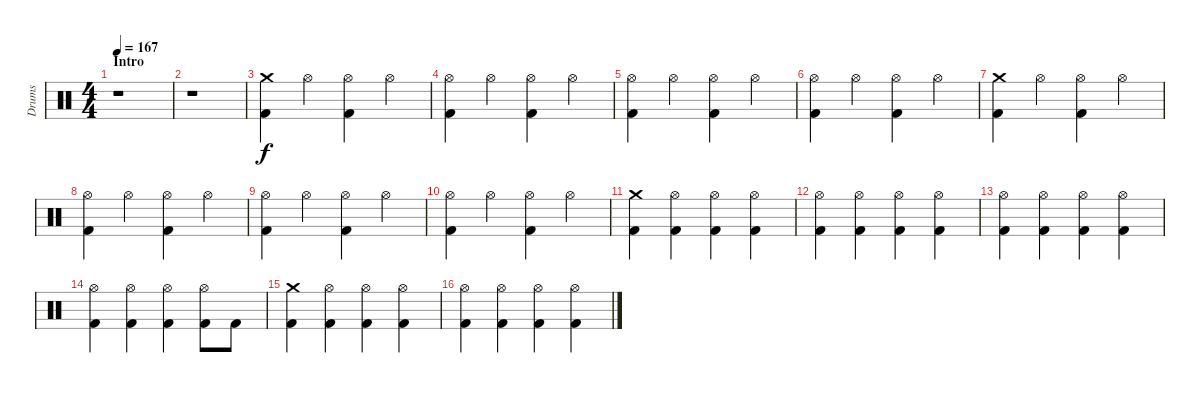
\track ("Drums" "Drums") {instrument percussion}
\staff {score}
\articulation defaults
\ts (4 4)
\section ("" "Intro")
\tempo 167
\clef neutral
\ks c
r.1{dy f} |
r.1 |
("Kick (hit) 2" "Crash medium (hit)").4 "Hi-Hat (open)".4 ("Kick (hit) 2" "Hi-Hat (open)").4 "Hi-Hat (open)".4 |
("Kick (hit) 2" "Hi-Hat (open)").4 "Hi-Hat (open)".4 ("Kick (hit) 2" "Hi-Hat (open)").4 "Hi-Hat (open)".4 |
("Kick (hit) 2" "Hi-Hat (open)").4 "Hi-Hat (open)".4 ("Kick (hit) 2" "Hi-Hat (open)").4 "Hi-Hat (open)".4 |
("Kick (hit) 2" "Hi-Hat (open)").4 "Hi-Hat (open)".4 ("Kick (hit) 2" "Hi-Hat (open)").4 "Hi-Hat (open)".4 |
("Kick (hit) 2" "Crash medium (hit)").4 "Hi-Hat (open)".4 ("Kick (hit) 2" "Hi-Hat (open)").4 "Hi-Hat (open)".4 |
("Kick (hit) 2" "Hi-Hat (open)").4 "Hi-Hat (open)".4 ("Kick (hit) 2" "Hi-Hat (open)").4 "Hi-Hat (open)".4 |
("Kick (hit) 2" "Hi-Hat (open)").4 "Hi-Hat (open)".4 ("Kick (hit) 2" "Hi-Hat (open)").4 "Hi-Hat (open)".4 |
("Kick (hit) 2" "Hi-Hat (open)").4 "Hi-Hat (open)".4 ("Kick (hit) 2" "Hi-Hat (open)").4 "Hi-Hat (open)".4 |
("Kick (hit) 2" "Crash medium (hit)").4 ("Kick (hit) 2" "Hi-Hat (open)").4 ("Kick (hit) 2" "Hi-Hat (open)").4 ("Kick (hit) 2" "Hi-Hat (open)").4 |
("Kick (hit) 2" "Hi-Hat (open)").4 ("Kick (hit) 2" "Hi-Hat (open)").4 ("Kick (hit) 2" "Hi-Hat (open)").4 ("Kick (hit) 2" "Hi-Hat (open)").4 |
("Kick (hit) 2" "Hi-Hat (open)").4 ("Kick (hit) 2" "Hi-Hat (open)").4 ("Kick (hit) 2" "Hi-Hat (open)").4 ("Kick (hit) 2" "Hi-Hat (open)").4 |
("Kick (hit) 2" "Hi-Hat (open)").4 ("Kick (hit) 2" "Hi-Hat (open)").4 ("Kick (hit) 2" "Hi-Hat (open)").4 ("Kick (hit) 2" "Hi-Hat (open)").8 "Kick (hit) 2".8 |
("Kick (hit) 2" "Crash medium (hit)").4 ("Kick (hit) 2" "Hi-Hat (open)").4 ("Kick (hit) 2" "Hi-Hat (open)").4 ("Kick (hit) 2" "Hi-Hat (open)").4 |
("Kick (hit) 2" "Hi-Hat (open)").4 ("Kick (hit) 2" "Hi-Hat (open)").4 ("Kick (hit) 2" "Hi-Hat (open)").4 ("Kick (hit) 2" "Hi-Hat (open)").4
